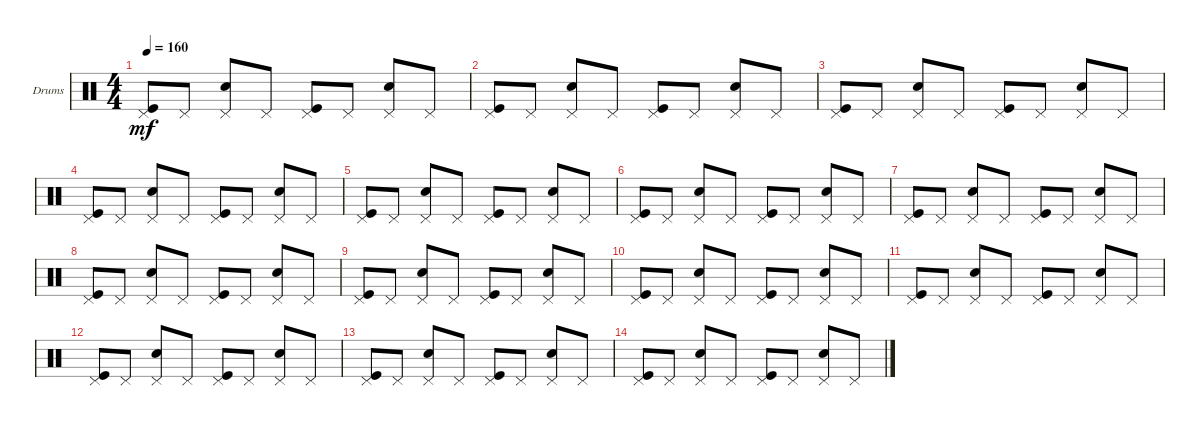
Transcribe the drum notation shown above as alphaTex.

\defaultSystemsLayout 4
\bracketExtendMode groupsimilarinstruments
\firstSystemTrackNameOrientation horizontal
\otherSystemsTrackNameOrientation horizontal
\track ("Drums" "Drums") {instrument percussion}
\staff {score}
\articulation defaults
\ts (4 4)
\tempo 160
\clef neutral
\ks c
("Pedal Hi-Hat (hit)" "Kick (hit)").8{dy mf} "Pedal Hi-Hat (hit)".8 ("Pedal Hi-Hat (hit)" "Snare (hit) 2").8 "Pedal Hi-Hat (hit)".8 ("Pedal Hi-Hat (hit)" "Kick (hit)").8 "Pedal Hi-Hat (hit)".8 ("Pedal Hi-Hat (hit)" "Snare (hit) 2").8 "Pedal Hi-Hat (hit)".8 |
("Pedal Hi-Hat (hit)" "Kick (hit)").8 "Pedal Hi-Hat (hit)".8 ("Pedal Hi-Hat (hit)" "Snare (hit) 2").8 "Pedal Hi-Hat (hit)".8 ("Pedal Hi-Hat (hit)" "Kick (hit)").8 "Pedal Hi-Hat (hit)".8 ("Pedal Hi-Hat (hit)" "Snare (hit) 2").8 "Pedal Hi-Hat (hit)".8 |
("Pedal Hi-Hat (hit)" "Kick (hit)").8 "Pedal Hi-Hat (hit)".8 ("Pedal Hi-Hat (hit)" "Snare (hit) 2").8 "Pedal Hi-Hat (hit)".8 ("Pedal Hi-Hat (hit)" "Kick (hit)").8 "Pedal Hi-Hat (hit)".8 ("Pedal Hi-Hat (hit)" "Snare (hit) 2").8 "Pedal Hi-Hat (hit)".8 |
("Pedal Hi-Hat (hit)" "Kick (hit)").8 "Pedal Hi-Hat (hit)".8 ("Pedal Hi-Hat (hit)" "Snare (hit) 2").8 "Pedal Hi-Hat (hit)".8 ("Pedal Hi-Hat (hit)" "Kick (hit)").8 "Pedal Hi-Hat (hit)".8 ("Pedal Hi-Hat (hit)" "Snare (hit) 2").8 "Pedal Hi-Hat (hit)".8 |
("Pedal Hi-Hat (hit)" "Kick (hit)").8 "Pedal Hi-Hat (hit)".8 ("Pedal Hi-Hat (hit)" "Snare (hit) 2").8 "Pedal Hi-Hat (hit)".8 ("Pedal Hi-Hat (hit)" "Kick (hit)").8 "Pedal Hi-Hat (hit)".8 ("Pedal Hi-Hat (hit)" "Snare (hit) 2").8 "Pedal Hi-Hat (hit)".8 |
("Pedal Hi-Hat (hit)" "Kick (hit)").8 "Pedal Hi-Hat (hit)".8 ("Pedal Hi-Hat (hit)" "Snare (hit) 2").8 "Pedal Hi-Hat (hit)".8 ("Pedal Hi-Hat (hit)" "Kick (hit)").8 "Pedal Hi-Hat (hit)".8 ("Pedal Hi-Hat (hit)" "Snare (hit) 2").8 "Pedal Hi-Hat (hit)".8 |
("Pedal Hi-Hat (hit)" "Kick (hit)").8 "Pedal Hi-Hat (hit)".8 ("Pedal Hi-Hat (hit)" "Snare (hit) 2").8 "Pedal Hi-Hat (hit)".8 ("Pedal Hi-Hat (hit)" "Kick (hit)").8 "Pedal Hi-Hat (hit)".8 ("Pedal Hi-Hat (hit)" "Snare (hit) 2").8 "Pedal Hi-Hat (hit)".8 |
("Pedal Hi-Hat (hit)" "Kick (hit)").8 "Pedal Hi-Hat (hit)".8 ("Pedal Hi-Hat (hit)" "Snare (hit) 2").8 "Pedal Hi-Hat (hit)".8 ("Pedal Hi-Hat (hit)" "Kick (hit)").8 "Pedal Hi-Hat (hit)".8 ("Pedal Hi-Hat (hit)" "Snare (hit) 2").8 "Pedal Hi-Hat (hit)".8 |
("Pedal Hi-Hat (hit)" "Kick (hit)").8 "Pedal Hi-Hat (hit)".8 ("Pedal Hi-Hat (hit)" "Snare (hit) 2").8 "Pedal Hi-Hat (hit)".8 ("Pedal Hi-Hat (hit)" "Kick (hit)").8 "Pedal Hi-Hat (hit)".8 ("Pedal Hi-Hat (hit)" "Snare (hit) 2").8 "Pedal Hi-Hat (hit)".8 |
("Pedal Hi-Hat (hit)" "Kick (hit)").8 "Pedal Hi-Hat (hit)".8 ("Pedal Hi-Hat (hit)" "Snare (hit) 2").8 "Pedal Hi-Hat (hit)".8 ("Pedal Hi-Hat (hit)" "Kick (hit)").8 "Pedal Hi-Hat (hit)".8 ("Pedal Hi-Hat (hit)" "Snare (hit) 2").8 "Pedal Hi-Hat (hit)".8 |
("Pedal Hi-Hat (hit)" "Kick (hit)").8 "Pedal Hi-Hat (hit)".8 ("Pedal Hi-Hat (hit)" "Snare (hit) 2").8 "Pedal Hi-Hat (hit)".8 ("Pedal Hi-Hat (hit)" "Kick (hit)").8 "Pedal Hi-Hat (hit)".8 ("Pedal Hi-Hat (hit)" "Snare (hit) 2").8 "Pedal Hi-Hat (hit)".8 |
("Pedal Hi-Hat (hit)" "Kick (hit)").8 "Pedal Hi-Hat (hit)".8 ("Pedal Hi-Hat (hit)" "Snare (hit) 2").8 "Pedal Hi-Hat (hit)".8 ("Pedal Hi-Hat (hit)" "Kick (hit)").8 "Pedal Hi-Hat (hit)".8 ("Pedal Hi-Hat (hit)" "Snare (hit) 2").8 "Pedal Hi-Hat (hit)".8 |
("Pedal Hi-Hat (hit)" "Kick (hit)").8 "Pedal Hi-Hat (hit)".8 ("Pedal Hi-Hat (hit)" "Snare (hit) 2").8 "Pedal Hi-Hat (hit)".8 ("Pedal Hi-Hat (hit)" "Kick (hit)").8 "Pedal Hi-Hat (hit)".8 ("Pedal Hi-Hat (hit)" "Snare (hit) 2").8 "Pedal Hi-Hat (hit)".8 |
("Pedal Hi-Hat (hit)" "Kick (hit)").8 "Pedal Hi-Hat (hit)".8 ("Pedal Hi-Hat (hit)" "Snare (hit) 2").8 "Pedal Hi-Hat (hit)".8 ("Pedal Hi-Hat (hit)" "Kick (hit)").8 "Pedal Hi-Hat (hit)".8 ("Pedal Hi-Hat (hit)" "Snare (hit) 2").8 "Pedal Hi-Hat (hit)".8
